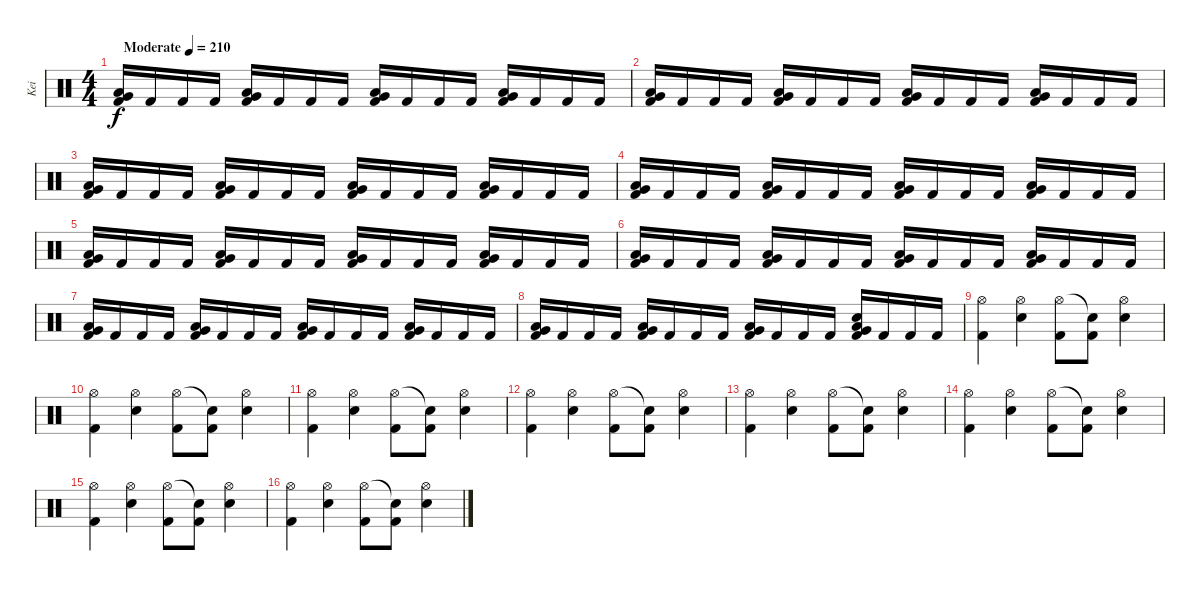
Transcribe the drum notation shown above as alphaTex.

\track ("Kei" "Kei") {instrument percussion}
\staff {score}
\articulation defaults
\ts (4 4)
\tempo (210 "Moderate")
\clef neutral
\ks c
("Very Low Tom (hit)" "Low Floor Tom (hit)" "Kick (hit) 2").16{dy f} "Kick (hit) 2".16 "Kick (hit) 2".16 "Kick (hit) 2".16 ("Very Low Tom (hit)" "Low Floor Tom (hit)" "Kick (hit) 2").16 "Kick (hit) 2".16 "Kick (hit) 2".16 "Kick (hit) 2".16 ("Very Low Tom (hit)" "Low Floor Tom (hit)" "Kick (hit) 2").16 "Kick (hit) 2".16 "Kick (hit) 2".16 "Kick (hit) 2".16 ("Very Low Tom (hit)" "Low Floor Tom (hit)" "Kick (hit) 2").16 "Kick (hit) 2".16 "Kick (hit) 2".16 "Kick (hit) 2".16 |
("Very Low Tom (hit)" "Low Floor Tom (hit)" "Kick (hit) 2").16 "Kick (hit) 2".16 "Kick (hit) 2".16 "Kick (hit) 2".16 ("Very Low Tom (hit)" "Low Floor Tom (hit)" "Kick (hit) 2").16 "Kick (hit) 2".16 "Kick (hit) 2".16 "Kick (hit) 2".16 ("Very Low Tom (hit)" "Low Floor Tom (hit)" "Kick (hit) 2").16 "Kick (hit) 2".16 "Kick (hit) 2".16 "Kick (hit) 2".16 ("Very Low Tom (hit)" "Low Floor Tom (hit)" "Kick (hit) 2").16 "Kick (hit) 2".16 "Kick (hit) 2".16 "Kick (hit) 2".16 |
("Very Low Tom (hit)" "Low Floor Tom (hit)" "Kick (hit) 2").16 "Kick (hit) 2".16 "Kick (hit) 2".16 "Kick (hit) 2".16 ("Very Low Tom (hit)" "Low Floor Tom (hit)" "Kick (hit) 2").16 "Kick (hit) 2".16 "Kick (hit) 2".16 "Kick (hit) 2".16 ("Very Low Tom (hit)" "Low Floor Tom (hit)" "Kick (hit) 2").16 "Kick (hit) 2".16 "Kick (hit) 2".16 "Kick (hit) 2".16 ("Very Low Tom (hit)" "Low Floor Tom (hit)" "Kick (hit) 2").16 "Kick (hit) 2".16 "Kick (hit) 2".16 "Kick (hit) 2".16 |
("Very Low Tom (hit)" "Low Floor Tom (hit)" "Kick (hit) 2").16 "Kick (hit) 2".16 "Kick (hit) 2".16 "Kick (hit) 2".16 ("Very Low Tom (hit)" "Low Floor Tom (hit)" "Kick (hit) 2").16 "Kick (hit) 2".16 "Kick (hit) 2".16 "Kick (hit) 2".16 ("Very Low Tom (hit)" "Low Floor Tom (hit)" "Kick (hit) 2").16 "Kick (hit) 2".16 "Kick (hit) 2".16 "Kick (hit) 2".16 ("Very Low Tom (hit)" "Low Floor Tom (hit)" "Kick (hit) 2").16 "Kick (hit) 2".16 "Kick (hit) 2".16 "Kick (hit) 2".16 |
("Very Low Tom (hit)" "Low Floor Tom (hit)" "Kick (hit) 2").16 "Kick (hit) 2".16 "Kick (hit) 2".16 "Kick (hit) 2".16 ("Very Low Tom (hit)" "Low Floor Tom (hit)" "Kick (hit) 2").16 "Kick (hit) 2".16 "Kick (hit) 2".16 "Kick (hit) 2".16 ("Very Low Tom (hit)" "Low Floor Tom (hit)" "Kick (hit) 2").16 "Kick (hit) 2".16 "Kick (hit) 2".16 "Kick (hit) 2".16 ("Very Low Tom (hit)" "Low Floor Tom (hit)" "Kick (hit) 2").16 "Kick (hit) 2".16 "Kick (hit) 2".16 "Kick (hit) 2".16 |
("Very Low Tom (hit)" "Low Floor Tom (hit)" "Kick (hit) 2").16 "Kick (hit) 2".16 "Kick (hit) 2".16 "Kick (hit) 2".16 ("Very Low Tom (hit)" "Low Floor Tom (hit)" "Kick (hit) 2").16 "Kick (hit) 2".16 "Kick (hit) 2".16 "Kick (hit) 2".16 ("Very Low Tom (hit)" "Low Floor Tom (hit)" "Kick (hit) 2").16 "Kick (hit) 2".16 "Kick (hit) 2".16 "Kick (hit) 2".16 ("Very Low Tom (hit)" "Low Floor Tom (hit)" "Kick (hit) 2").16 "Kick (hit) 2".16 "Kick (hit) 2".16 "Kick (hit) 2".16 |
("Very Low Tom (hit)" "Low Floor Tom (hit)" "Kick (hit) 2").16 "Kick (hit) 2".16 "Kick (hit) 2".16 "Kick (hit) 2".16 ("Very Low Tom (hit)" "Low Floor Tom (hit)" "Kick (hit) 2").16 "Kick (hit) 2".16 "Kick (hit) 2".16 "Kick (hit) 2".16 ("Very Low Tom (hit)" "Low Floor Tom (hit)" "Kick (hit) 2").16 "Kick (hit) 2".16 "Kick (hit) 2".16 "Kick (hit) 2".16 ("Very Low Tom (hit)" "Low Floor Tom (hit)" "Kick (hit) 2").16 "Kick (hit) 2".16 "Kick (hit) 2".16 "Kick (hit) 2".16 |
("Very Low Tom (hit)" "Low Floor Tom (hit)" "Kick (hit) 2").16 "Kick (hit) 2".16 "Kick (hit) 2".16 "Kick (hit) 2".16 ("Very Low Tom (hit)" "Low Floor Tom (hit)" "Kick (hit) 2").16 "Kick (hit) 2".16 "Kick (hit) 2".16 "Kick (hit) 2".16 ("Very Low Tom (hit)" "Low Floor Tom (hit)" "Kick (hit) 2").16 "Kick (hit) 2".16 "Kick (hit) 2".16 "Kick (hit) 2".16 ("Electric Snare (hit)" "Very Low Tom (hit)" "Low Floor Tom (hit)" "Kick (hit) 2").16 "Kick (hit) 2".16 "Kick (hit) 2".16 "Kick (hit) 2".16 |
("Hi-Hat (open)" "Kick (hit) 2").4 ("Hi-Hat (open)" "Electric Snare (hit)").4 ("Hi-Hat (open)" "Kick (hit) 2").8 ("Snare (hit)"{t} "Kick (hit) 2").8 ("Hi-Hat (open)" "Electric Snare (hit)").4 |
("Hi-Hat (open)" "Kick (hit) 2").4 ("Hi-Hat (open)" "Electric Snare (hit)").4 ("Hi-Hat (open)" "Kick (hit) 2").8 ("Snare (hit)"{t} "Kick (hit) 2").8 ("Hi-Hat (open)" "Electric Snare (hit)").4 |
("Hi-Hat (open)" "Kick (hit) 2").4 ("Hi-Hat (open)" "Electric Snare (hit)").4 ("Hi-Hat (open)" "Kick (hit) 2").8 ("Snare (hit)"{t} "Kick (hit) 2").8 ("Hi-Hat (open)" "Electric Snare (hit)").4 |
("Hi-Hat (open)" "Kick (hit) 2").4 ("Hi-Hat (open)" "Electric Snare (hit)").4 ("Hi-Hat (open)" "Kick (hit) 2").8 ("Snare (hit)"{t} "Kick (hit) 2").8 ("Hi-Hat (open)" "Electric Snare (hit)").4 |
("Hi-Hat (open)" "Kick (hit) 2").4 ("Hi-Hat (open)" "Electric Snare (hit)").4 ("Hi-Hat (open)" "Kick (hit) 2").8 ("Snare (hit)"{t} "Kick (hit) 2").8 ("Hi-Hat (open)" "Electric Snare (hit)").4 |
("Hi-Hat (open)" "Kick (hit) 2").4 ("Hi-Hat (open)" "Electric Snare (hit)").4 ("Hi-Hat (open)" "Kick (hit) 2").8 ("Snare (hit)"{t} "Kick (hit) 2").8 ("Hi-Hat (open)" "Electric Snare (hit)").4 |
("Hi-Hat (open)" "Kick (hit) 2").4 ("Hi-Hat (open)" "Electric Snare (hit)").4 ("Hi-Hat (open)" "Kick (hit) 2").8 ("Snare (hit)"{t} "Kick (hit) 2").8 ("Hi-Hat (open)" "Electric Snare (hit)").4 |
("Hi-Hat (open)" "Kick (hit) 2").4 ("Hi-Hat (open)" "Electric Snare (hit)").4 ("Hi-Hat (open)" "Kick (hit) 2").8 ("Snare (hit)"{t} "Kick (hit) 2").8 ("Hi-Hat (open)" "Electric Snare (hit)").4
